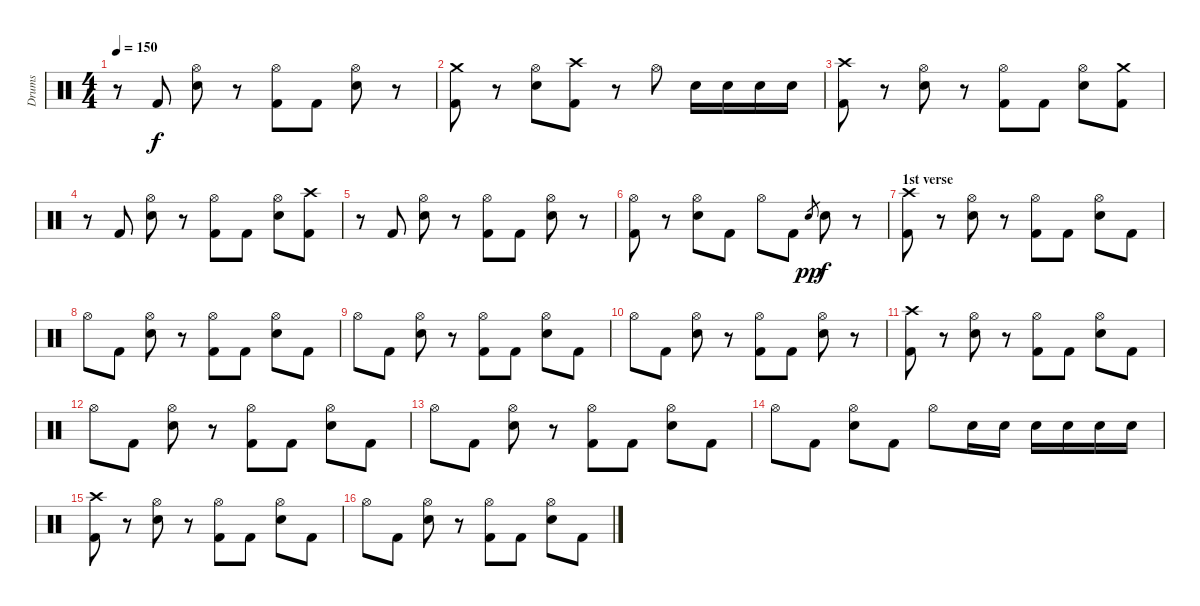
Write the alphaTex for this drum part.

\track ("Drums" "Drums") {instrument percussion}
\staff {score}
\articulation defaults
\ts (4 4)
\tempo 150
\clef neutral
\ks c
r.8{dy f} "Kick (hit) 2".8 ("Hi-Hat (open)" "Snare (hit) 2").8 r.8 ("Hi-Hat (open)" "Kick (hit) 2").8 "Kick (hit) 2".8 ("Hi-Hat (open)" "Snare (hit) 2").8 r.8 |
("Crash medium (hit)" "Kick (hit) 2").8 r.8 ("Hi-Hat (open)" "Snare (hit) 2").8 ("Crash high (hit)" "Kick (hit) 2").8 r.8 "Hi-Hat (open)".8 "Snare (hit) 2".16 "Snare (hit) 2".16 "Snare (hit) 2".16 "Snare (hit) 2".16 |
("Crash high (hit)" "Kick (hit) 2").8 r.8 ("Hi-Hat (open)" "Snare (hit) 2").8 r.8 ("Hi-Hat (open)" "Kick (hit) 2").8 "Kick (hit) 2".8 ("Hi-Hat (open)" "Snare (hit) 2").8 ("Crash medium (hit)" "Kick (hit) 2").8 |
r.8 "Kick (hit) 2".8 ("Hi-Hat (open)" "Snare (hit) 2").8 r.8 ("Hi-Hat (open)" "Kick (hit) 2").8 "Kick (hit) 2".8 ("Hi-Hat (open)" "Snare (hit) 2").8 ("Crash high (hit)" "Kick (hit) 2").8 |
r.8 "Kick (hit) 2".8 ("Hi-Hat (open)" "Snare (hit) 2").8 r.8 ("Hi-Hat (open)" "Kick (hit) 2").8 "Kick (hit) 2".8 ("Hi-Hat (open)" "Snare (hit) 2").8 r.8 |
("Hi-Hat (open)" "Kick (hit) 2").8 r.8 ("Hi-Hat (open)" "Snare (hit) 2").8 "Kick (hit) 2".8 "Hi-Hat (open)".8 "Kick (hit) 2".8 "Snare (hit) 2".8{gr dy pp} "Snare (hit) 2".8{dy f} r.8 |
\section ("" "1st verse")
("Crash high (hit)" "Kick (hit) 2").8 r.8 ("Hi-Hat (open)" "Snare (hit) 2").8 r.8 ("Hi-Hat (open)" "Kick (hit) 2").8 "Kick (hit) 2".8 ("Hi-Hat (open)" "Snare (hit) 2").8 "Kick (hit) 2".8 |
"Hi-Hat (open)".8 "Kick (hit) 2".8 ("Hi-Hat (open)" "Snare (hit) 2").8 r.8 ("Hi-Hat (open)" "Kick (hit) 2").8 "Kick (hit) 2".8 ("Hi-Hat (open)" "Snare (hit) 2").8 "Kick (hit) 2".8 |
"Hi-Hat (open)".8 "Kick (hit) 2".8 ("Hi-Hat (open)" "Snare (hit) 2").8 r.8 ("Hi-Hat (open)" "Kick (hit) 2").8 "Kick (hit) 2".8 ("Hi-Hat (open)" "Snare (hit) 2").8 "Kick (hit) 2".8 |
"Hi-Hat (open)".8 "Kick (hit) 2".8 ("Hi-Hat (open)" "Snare (hit) 2").8 r.8 ("Hi-Hat (open)" "Kick (hit) 2").8 "Kick (hit) 2".8 ("Hi-Hat (open)" "Snare (hit) 2").8 r.8 |
("Crash high (hit)" "Kick (hit) 2").8 r.8 ("Hi-Hat (open)" "Snare (hit) 2").8 r.8 ("Hi-Hat (open)" "Kick (hit) 2").8 "Kick (hit) 2".8 ("Hi-Hat (open)" "Snare (hit) 2").8 "Kick (hit) 2".8 |
"Hi-Hat (open)".8 "Kick (hit) 2".8 ("Hi-Hat (open)" "Snare (hit) 2").8 r.8 ("Hi-Hat (open)" "Kick (hit) 2").8 "Kick (hit) 2".8 ("Hi-Hat (open)" "Snare (hit) 2").8 "Kick (hit) 2".8 |
"Hi-Hat (open)".8 "Kick (hit) 2".8 ("Hi-Hat (open)" "Snare (hit) 2").8 r.8 ("Hi-Hat (open)" "Kick (hit) 2").8 "Kick (hit) 2".8 ("Hi-Hat (open)" "Snare (hit) 2").8 "Kick (hit) 2".8 |
"Hi-Hat (open)".8 "Kick (hit) 2".8 ("Hi-Hat (open)" "Snare (hit) 2").8 "Kick (hit) 2".8 "Hi-Hat (open)".8 "Snare (hit) 2".16 "Snare (hit) 2".16 "Snare (hit) 2".16 "Snare (hit) 2".16 "Snare (hit) 2".16 "Snare (hit) 2".16 |
("Crash high (hit)" "Kick (hit) 2").8 r.8 ("Hi-Hat (open)" "Snare (hit) 2").8 r.8 ("Hi-Hat (open)" "Kick (hit) 2").8 "Kick (hit) 2".8 ("Hi-Hat (open)" "Snare (hit) 2").8 "Kick (hit) 2".8 |
"Hi-Hat (open)".8 "Kick (hit) 2".8 ("Hi-Hat (open)" "Snare (hit) 2").8 r.8 ("Hi-Hat (open)" "Kick (hit) 2").8 "Kick (hit) 2".8 ("Hi-Hat (open)" "Snare (hit) 2").8 "Kick (hit) 2".8
